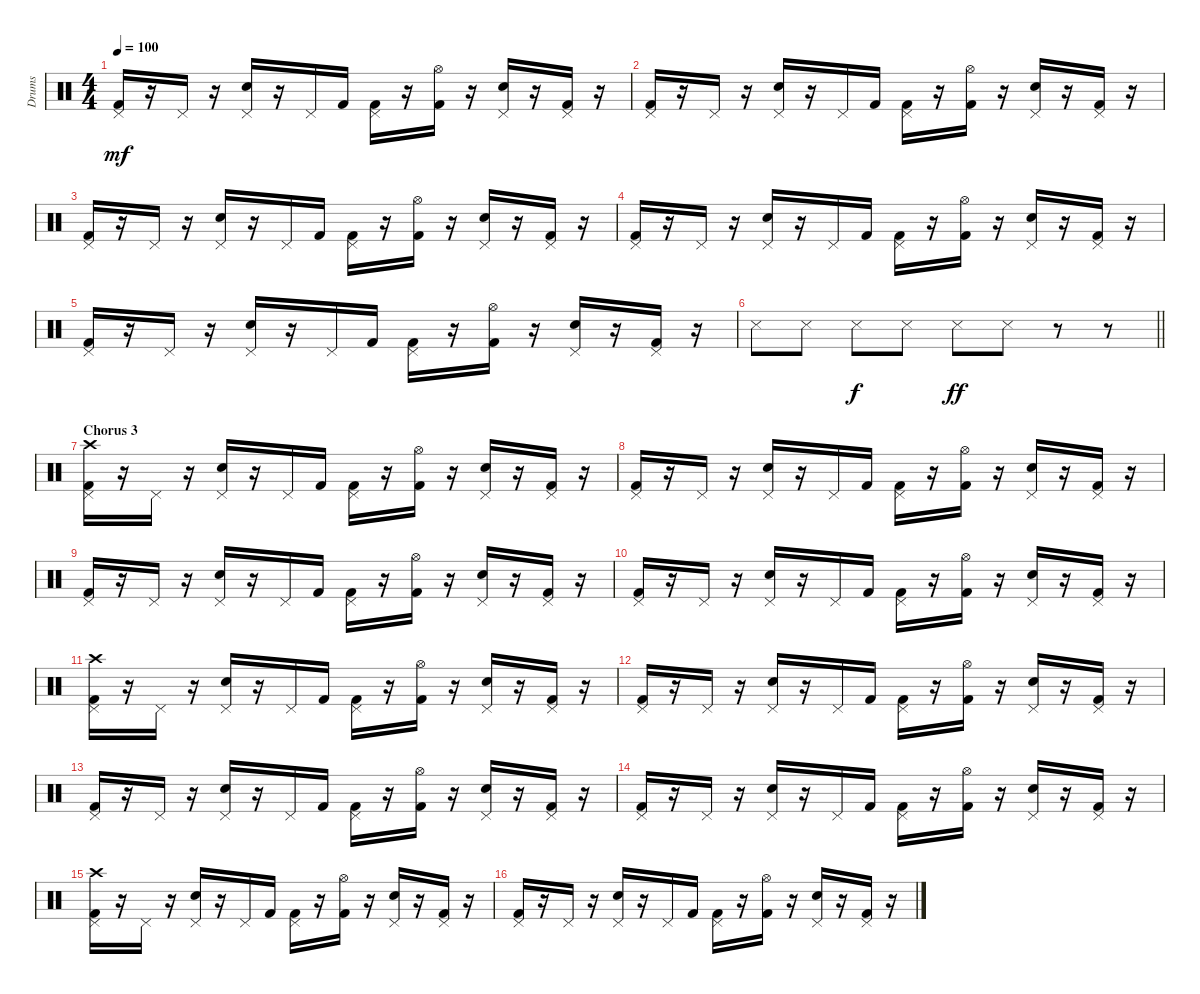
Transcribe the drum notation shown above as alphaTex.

\track ("Drums" "Drums") {instrument percussion}
\staff {score}
\articulation defaults
\ts (4 4)
\tempo 100
\clef neutral
\ks c
("Pedal Hi-Hat (hit)" "Kick (hit) 2").16{dy mf} r.16 "Pedal Hi-Hat (hit)".16 r.16 ("Pedal Hi-Hat (hit)" "Electric Snare (hit)").16 r.16 "Pedal Hi-Hat (hit)".16 "Kick (hit) 2".16 ("Pedal Hi-Hat (hit)" "Kick (hit) 2").16 r.16 ("Hi-Hat (open)" "Kick (hit) 2").16 r.16 ("Pedal Hi-Hat (hit)" "Electric Snare (hit)").16 r.16 ("Pedal Hi-Hat (hit)" "Kick (hit) 2").16 r.16 |
("Pedal Hi-Hat (hit)" "Kick (hit) 2").16 r.16 "Pedal Hi-Hat (hit)".16 r.16 ("Pedal Hi-Hat (hit)" "Electric Snare (hit)").16 r.16 "Pedal Hi-Hat (hit)".16 "Kick (hit) 2".16 ("Pedal Hi-Hat (hit)" "Kick (hit) 2").16 r.16 ("Hi-Hat (open)" "Kick (hit) 2").16 r.16 ("Pedal Hi-Hat (hit)" "Electric Snare (hit)").16 r.16 ("Pedal Hi-Hat (hit)" "Kick (hit) 2").16 r.16 |
("Pedal Hi-Hat (hit)" "Kick (hit) 2").16 r.16 "Pedal Hi-Hat (hit)".16 r.16 ("Pedal Hi-Hat (hit)" "Electric Snare (hit)").16 r.16 "Pedal Hi-Hat (hit)".16 "Kick (hit) 2".16 ("Pedal Hi-Hat (hit)" "Kick (hit) 2").16 r.16 ("Hi-Hat (open)" "Kick (hit) 2").16 r.16 ("Pedal Hi-Hat (hit)" "Electric Snare (hit)").16 r.16 ("Pedal Hi-Hat (hit)" "Kick (hit) 2").16 r.16 |
("Pedal Hi-Hat (hit)" "Kick (hit) 2").16 r.16 "Pedal Hi-Hat (hit)".16 r.16 ("Pedal Hi-Hat (hit)" "Electric Snare (hit)").16 r.16 "Pedal Hi-Hat (hit)".16 "Kick (hit) 2".16 ("Pedal Hi-Hat (hit)" "Kick (hit) 2").16 r.16 ("Hi-Hat (open)" "Kick (hit) 2").16 r.16 ("Pedal Hi-Hat (hit)" "Electric Snare (hit)").16 r.16 ("Pedal Hi-Hat (hit)" "Kick (hit) 2").16 r.16 |
("Pedal Hi-Hat (hit)" "Kick (hit) 2").16 r.16 "Pedal Hi-Hat (hit)".16 r.16 ("Pedal Hi-Hat (hit)" "Electric Snare (hit)").16 r.16 "Pedal Hi-Hat (hit)".16 "Kick (hit) 2".16 ("Pedal Hi-Hat (hit)" "Kick (hit) 2").16 r.16 ("Hi-Hat (open)" "Kick (hit) 2").16 r.16 ("Pedal Hi-Hat (hit)" "Electric Snare (hit)").16 r.16 ("Pedal Hi-Hat (hit)" "Kick (hit) 2").16 r.16 |
\barLineRight lightlight "Metronome (hit)".8 "Metronome (hit)".8 "Metronome (hit)".8{dy f} "Metronome (hit)".8 "Metronome (hit)".8{dy ff} "Metronome (hit)".8
r.8 r.8 |
\section ("" "Chorus 3")
("Pedal Hi-Hat (hit)" "Crash high (hit)" "Kick (hit) 2").16 r.16 "Pedal Hi-Hat (hit)".16 r.16 ("Pedal Hi-Hat (hit)" "Electric Snare (hit)").16 r.16 "Pedal Hi-Hat (hit)".16 "Kick (hit) 2".16 ("Pedal Hi-Hat (hit)" "Kick (hit) 2").16 r.16 ("Hi-Hat (open)" "Kick (hit) 2").16 r.16 ("Pedal Hi-Hat (hit)" "Electric Snare (hit)").16 r.16 ("Pedal Hi-Hat (hit)" "Kick (hit) 2").16 r.16 |
("Pedal Hi-Hat (hit)" "Kick (hit) 2").16 r.16 "Pedal Hi-Hat (hit)".16 r.16 ("Pedal Hi-Hat (hit)" "Electric Snare (hit)").16 r.16 "Pedal Hi-Hat (hit)".16 "Kick (hit) 2".16 ("Pedal Hi-Hat (hit)" "Kick (hit) 2").16 r.16 ("Hi-Hat (open)" "Kick (hit) 2").16 r.16 ("Pedal Hi-Hat (hit)" "Electric Snare (hit)").16 r.16 ("Pedal Hi-Hat (hit)" "Kick (hit) 2").16 r.16 |
("Pedal Hi-Hat (hit)" "Kick (hit) 2").16 r.16 "Pedal Hi-Hat (hit)".16 r.16 ("Pedal Hi-Hat (hit)" "Electric Snare (hit)").16 r.16 "Pedal Hi-Hat (hit)".16 "Kick (hit) 2".16 ("Pedal Hi-Hat (hit)" "Kick (hit) 2").16 r.16 ("Hi-Hat (open)" "Kick (hit) 2").16 r.16 ("Pedal Hi-Hat (hit)" "Electric Snare (hit)").16 r.16 ("Pedal Hi-Hat (hit)" "Kick (hit) 2").16 r.16 |
("Pedal Hi-Hat (hit)" "Kick (hit) 2").16 r.16 "Pedal Hi-Hat (hit)".16 r.16 ("Pedal Hi-Hat (hit)" "Electric Snare (hit)").16 r.16 "Pedal Hi-Hat (hit)".16 "Kick (hit) 2".16 ("Pedal Hi-Hat (hit)" "Kick (hit) 2").16 r.16 ("Hi-Hat (open)" "Kick (hit) 2").16 r.16 ("Pedal Hi-Hat (hit)" "Electric Snare (hit)").16 r.16 ("Pedal Hi-Hat (hit)" "Kick (hit) 2").16 r.16 |
("Pedal Hi-Hat (hit)" "Crash high (hit)" "Kick (hit) 2").16 r.16 "Pedal Hi-Hat (hit)".16 r.16 ("Pedal Hi-Hat (hit)" "Electric Snare (hit)").16 r.16 "Pedal Hi-Hat (hit)".16 "Kick (hit) 2".16 ("Pedal Hi-Hat (hit)" "Kick (hit) 2").16 r.16 ("Hi-Hat (open)" "Kick (hit) 2").16 r.16 ("Pedal Hi-Hat (hit)" "Electric Snare (hit)").16 r.16 ("Pedal Hi-Hat (hit)" "Kick (hit) 2").16 r.16 |
("Pedal Hi-Hat (hit)" "Kick (hit) 2").16 r.16 "Pedal Hi-Hat (hit)".16 r.16 ("Pedal Hi-Hat (hit)" "Electric Snare (hit)").16 r.16 "Pedal Hi-Hat (hit)".16 "Kick (hit) 2".16 ("Pedal Hi-Hat (hit)" "Kick (hit) 2").16 r.16 ("Hi-Hat (open)" "Kick (hit) 2").16 r.16 ("Pedal Hi-Hat (hit)" "Electric Snare (hit)").16 r.16 ("Pedal Hi-Hat (hit)" "Kick (hit) 2").16 r.16 |
("Pedal Hi-Hat (hit)" "Kick (hit) 2").16 r.16 "Pedal Hi-Hat (hit)".16 r.16 ("Pedal Hi-Hat (hit)" "Electric Snare (hit)").16 r.16 "Pedal Hi-Hat (hit)".16 "Kick (hit) 2".16 ("Pedal Hi-Hat (hit)" "Kick (hit) 2").16 r.16 ("Hi-Hat (open)" "Kick (hit) 2").16 r.16 ("Pedal Hi-Hat (hit)" "Electric Snare (hit)").16 r.16 ("Pedal Hi-Hat (hit)" "Kick (hit) 2").16 r.16 |
("Pedal Hi-Hat (hit)" "Kick (hit) 2").16 r.16 "Pedal Hi-Hat (hit)".16 r.16 ("Pedal Hi-Hat (hit)" "Electric Snare (hit)").16 r.16 "Pedal Hi-Hat (hit)".16 "Kick (hit) 2".16 ("Pedal Hi-Hat (hit)" "Kick (hit) 2").16 r.16 ("Hi-Hat (open)" "Kick (hit) 2").16 r.16 ("Pedal Hi-Hat (hit)" "Electric Snare (hit)").16 r.16 ("Pedal Hi-Hat (hit)" "Kick (hit) 2").16 r.16 |
("Pedal Hi-Hat (hit)" "Crash high (hit)" "Kick (hit) 2").16 r.16 "Pedal Hi-Hat (hit)".16 r.16 ("Pedal Hi-Hat (hit)" "Electric Snare (hit)").16 r.16 "Pedal Hi-Hat (hit)".16 "Kick (hit) 2".16 ("Pedal Hi-Hat (hit)" "Kick (hit) 2").16 r.16 ("Hi-Hat (open)" "Kick (hit) 2").16 r.16 ("Pedal Hi-Hat (hit)" "Electric Snare (hit)").16 r.16 ("Pedal Hi-Hat (hit)" "Kick (hit) 2").16 r.16 |
("Pedal Hi-Hat (hit)" "Kick (hit) 2").16 r.16 "Pedal Hi-Hat (hit)".16 r.16 ("Pedal Hi-Hat (hit)" "Electric Snare (hit)").16 r.16 "Pedal Hi-Hat (hit)".16 "Kick (hit) 2".16 ("Pedal Hi-Hat (hit)" "Kick (hit) 2").16 r.16 ("Hi-Hat (open)" "Kick (hit) 2").16 r.16 ("Pedal Hi-Hat (hit)" "Electric Snare (hit)").16 r.16 ("Pedal Hi-Hat (hit)" "Kick (hit) 2").16 r.16
